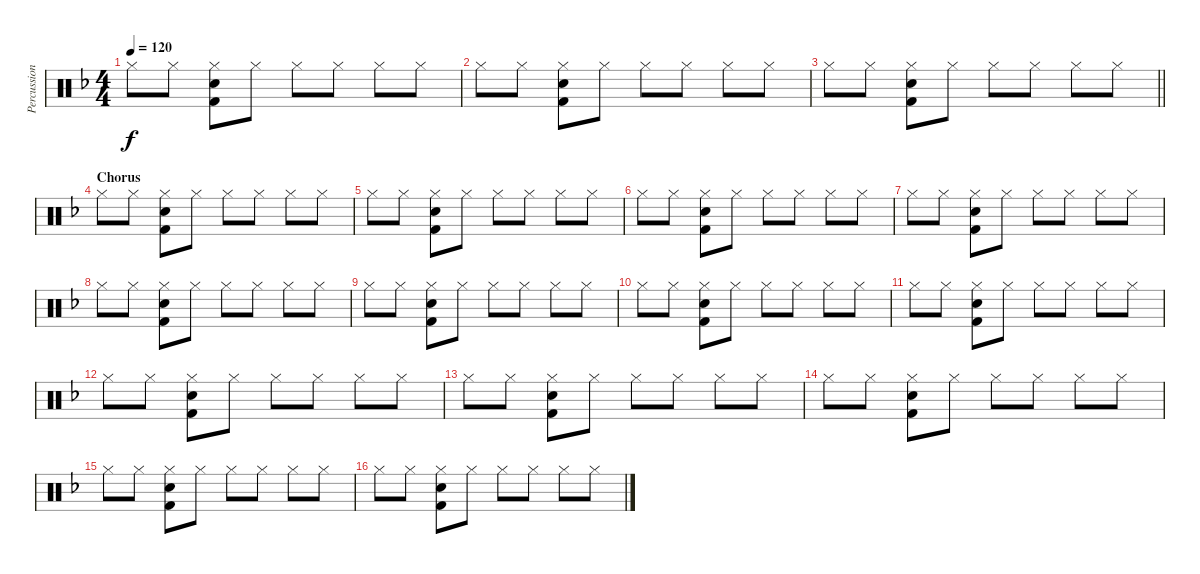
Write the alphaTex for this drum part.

\track ("Percussion" "Percussion") {instrument percussion}
\staff {score}
\articulation defaults
\ts (4 4)
\tempo 120
\clef neutral
\ks f "Hi-Hat (closed)".8{dy f} "Hi-Hat (closed)".8
("Hi-Hat (closed)" "Snare (hit) 2" "Kick (hit) 2").8 "Hi-Hat (closed)".8 "Hi-Hat (closed)".8 "Hi-Hat (closed)".8 "Hi-Hat (closed)".8 "Hi-Hat (closed)".8 |
"Hi-Hat (closed)".8 "Hi-Hat (closed)".8 ("Hi-Hat (closed)" "Snare (hit) 2" "Kick (hit) 2").8 "Hi-Hat (closed)".8 "Hi-Hat (closed)".8 "Hi-Hat (closed)".8 "Hi-Hat (closed)".8 "Hi-Hat (closed)".8 |
\barLineRight lightlight "Hi-Hat (closed)".8 "Hi-Hat (closed)".8
("Hi-Hat (closed)" "Snare (hit) 2" "Kick (hit) 2").8 "Hi-Hat (closed)".8 "Hi-Hat (closed)".8 "Hi-Hat (closed)".8 "Hi-Hat (closed)".8 "Hi-Hat (closed)".8 |
\section ("" "Chorus")
"Hi-Hat (closed)".8 "Hi-Hat (closed)".8 ("Hi-Hat (closed)" "Snare (hit) 2" "Kick (hit) 2").8 "Hi-Hat (closed)".8 "Hi-Hat (closed)".8 "Hi-Hat (closed)".8 "Hi-Hat (closed)".8 "Hi-Hat (closed)".8 |
"Hi-Hat (closed)".8 "Hi-Hat (closed)".8 ("Hi-Hat (closed)" "Snare (hit) 2" "Kick (hit) 2").8 "Hi-Hat (closed)".8 "Hi-Hat (closed)".8 "Hi-Hat (closed)".8 "Hi-Hat (closed)".8 "Hi-Hat (closed)".8 |
"Hi-Hat (closed)".8 "Hi-Hat (closed)".8 ("Hi-Hat (closed)" "Snare (hit) 2" "Kick (hit) 2").8 "Hi-Hat (closed)".8 "Hi-Hat (closed)".8 "Hi-Hat (closed)".8 "Hi-Hat (closed)".8 "Hi-Hat (closed)".8 |
"Hi-Hat (closed)".8 "Hi-Hat (closed)".8 ("Hi-Hat (closed)" "Snare (hit) 2" "Kick (hit) 2").8 "Hi-Hat (closed)".8 "Hi-Hat (closed)".8 "Hi-Hat (closed)".8 "Hi-Hat (closed)".8 "Hi-Hat (closed)".8 |
"Hi-Hat (closed)".8 "Hi-Hat (closed)".8 ("Hi-Hat (closed)" "Snare (hit) 2" "Kick (hit) 2").8 "Hi-Hat (closed)".8 "Hi-Hat (closed)".8 "Hi-Hat (closed)".8 "Hi-Hat (closed)".8 "Hi-Hat (closed)".8 |
"Hi-Hat (closed)".8 "Hi-Hat (closed)".8 ("Hi-Hat (closed)" "Snare (hit) 2" "Kick (hit) 2").8 "Hi-Hat (closed)".8 "Hi-Hat (closed)".8 "Hi-Hat (closed)".8 "Hi-Hat (closed)".8 "Hi-Hat (closed)".8 |
"Hi-Hat (closed)".8 "Hi-Hat (closed)".8 ("Hi-Hat (closed)" "Snare (hit) 2" "Kick (hit) 2").8 "Hi-Hat (closed)".8 "Hi-Hat (closed)".8 "Hi-Hat (closed)".8 "Hi-Hat (closed)".8 "Hi-Hat (closed)".8 |
"Hi-Hat (closed)".8 "Hi-Hat (closed)".8 ("Hi-Hat (closed)" "Snare (hit) 2" "Kick (hit) 2").8 "Hi-Hat (closed)".8 "Hi-Hat (closed)".8 "Hi-Hat (closed)".8 "Hi-Hat (closed)".8 "Hi-Hat (closed)".8 |
"Hi-Hat (closed)".8 "Hi-Hat (closed)".8 ("Hi-Hat (closed)" "Snare (hit) 2" "Kick (hit) 2").8 "Hi-Hat (closed)".8 "Hi-Hat (closed)".8 "Hi-Hat (closed)".8 "Hi-Hat (closed)".8 "Hi-Hat (closed)".8 |
"Hi-Hat (closed)".8 "Hi-Hat (closed)".8 ("Hi-Hat (closed)" "Snare (hit) 2" "Kick (hit) 2").8 "Hi-Hat (closed)".8 "Hi-Hat (closed)".8 "Hi-Hat (closed)".8 "Hi-Hat (closed)".8 "Hi-Hat (closed)".8 |
"Hi-Hat (closed)".8 "Hi-Hat (closed)".8 ("Hi-Hat (closed)" "Snare (hit) 2" "Kick (hit) 2").8 "Hi-Hat (closed)".8 "Hi-Hat (closed)".8 "Hi-Hat (closed)".8 "Hi-Hat (closed)".8 "Hi-Hat (closed)".8 |
"Hi-Hat (closed)".8 "Hi-Hat (closed)".8 ("Hi-Hat (closed)" "Snare (hit) 2" "Kick (hit) 2").8 "Hi-Hat (closed)".8 "Hi-Hat (closed)".8 "Hi-Hat (closed)".8 "Hi-Hat (closed)".8 "Hi-Hat (closed)".8 |
"Hi-Hat (closed)".8 "Hi-Hat (closed)".8 ("Hi-Hat (closed)" "Snare (hit) 2" "Kick (hit) 2").8 "Hi-Hat (closed)".8 "Hi-Hat (closed)".8 "Hi-Hat (closed)".8 "Hi-Hat (closed)".8 "Hi-Hat (closed)".8
